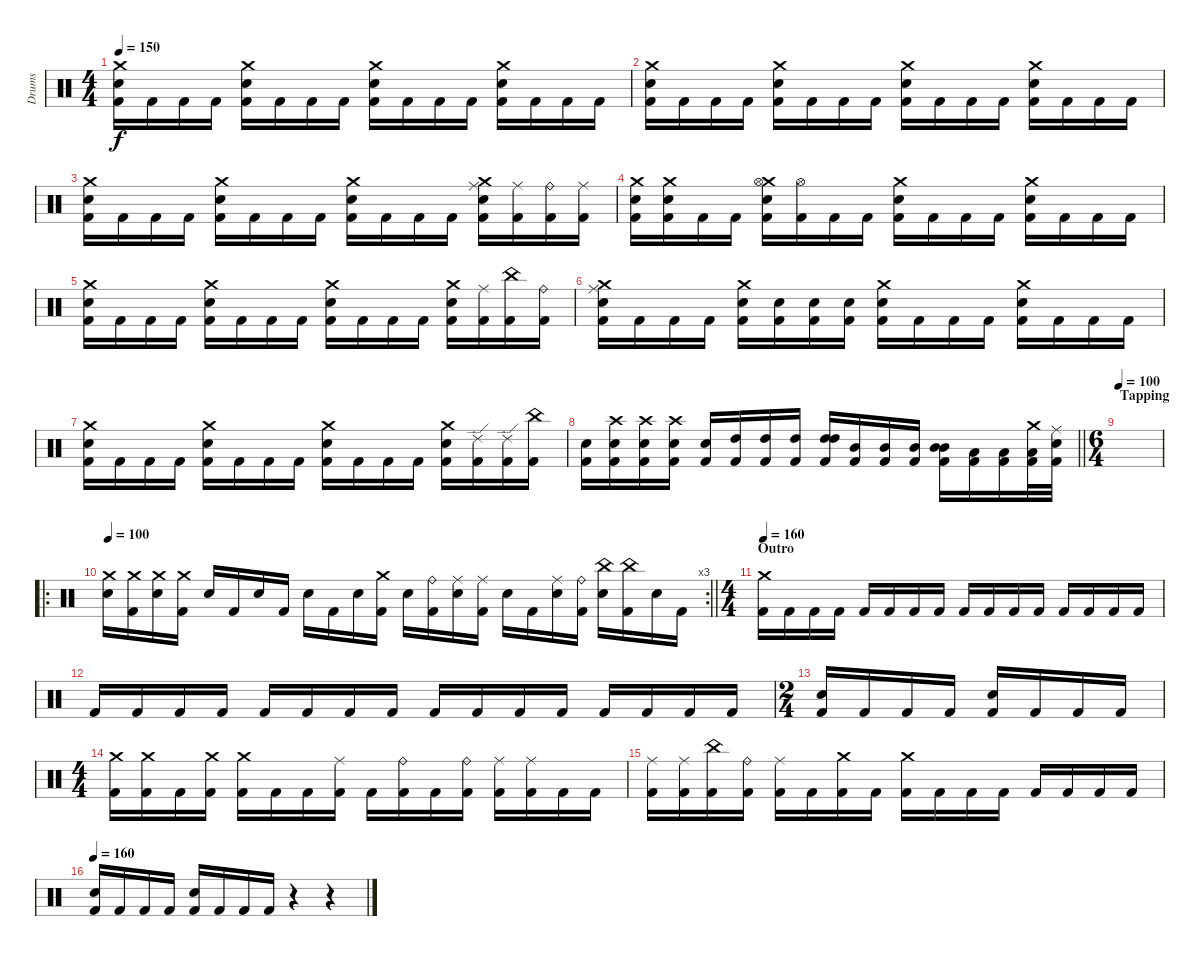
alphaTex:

\track ("Drums" "Drums") {instrument percussion}
\staff {score}
\articulation defaults
\ts (4 4)
\tempo 150
\clef neutral
\ks c
("Crash medium (hit)" "Electric Snare (hit)" "Kick (hit) 2").16{dy f} "Kick (hit) 2".16 "Kick (hit) 2".16 "Kick (hit) 2".16 ("Crash medium (hit)" "Electric Snare (hit)" "Kick (hit) 2").16 "Kick (hit) 2".16 "Kick (hit) 2".16 "Kick (hit) 2".16 ("Crash medium (hit)" "Electric Snare (hit)" "Kick (hit) 2").16 "Kick (hit) 2".16 "Kick (hit) 2".16 "Kick (hit) 2".16 ("Crash medium (hit)" "Electric Snare (hit)" "Kick (hit) 2").16 "Kick (hit) 2".16 "Kick (hit) 2".16 "Kick (hit) 2".16 |
("Crash medium (hit)" "Electric Snare (hit)" "Kick (hit) 2").16 "Kick (hit) 2".16 "Kick (hit) 2".16 "Kick (hit) 2".16 ("Crash medium (hit)" "Electric Snare (hit)" "Kick (hit) 2").16 "Kick (hit) 2".16 "Kick (hit) 2".16 "Kick (hit) 2".16 ("Crash medium (hit)" "Electric Snare (hit)" "Kick (hit) 2").16 "Kick (hit) 2".16 "Kick (hit) 2".16 "Kick (hit) 2".16 ("Crash medium (hit)" "Electric Snare (hit)" "Kick (hit) 2").16 "Kick (hit) 2".16 "Kick (hit) 2".16 "Kick (hit) 2".16 |
("Crash medium (hit)" "Electric Snare (hit)" "Kick (hit) 2").16 "Kick (hit) 2".16 "Kick (hit) 2".16 "Kick (hit) 2".16 ("Crash medium (hit)" "Electric Snare (hit)" "Kick (hit) 2").16 "Kick (hit) 2".16 "Kick (hit) 2".16 "Kick (hit) 2".16 ("Crash medium (hit)" "Electric Snare (hit)" "Kick (hit) 2").16 "Kick (hit) 2".16 "Kick (hit) 2".16 "Kick (hit) 2".16 ("Crash medium (hit)" "Ride (middle)" "Electric Snare (hit)" "Kick (hit) 2").16 ("Ride (middle)" "Kick (hit) 2").16 ("Ride (bell)" "Kick (hit) 2").16 ("Ride (middle)" "Kick (hit) 2").16 |
("Crash medium (hit)" "Electric Snare (hit)" "Kick (hit) 2").16 ("Crash medium (hit)" "Electric Snare (hit)" "Kick (hit) 2").16 "Kick (hit) 2".16 "Kick (hit) 2".16 ("Crash medium (hit)" "Hi-Hat (open)" "Electric Snare (hit)" "Kick (hit) 2").16 ("Hi-Hat (open)" "Kick (hit) 2").16 "Kick (hit) 2".16 "Kick (hit) 2".16 ("Crash medium (hit)" "Electric Snare (hit)" "Kick (hit) 2").16 "Kick (hit) 2".16 "Kick (hit) 2".16 "Kick (hit) 2".16 ("Crash medium (hit)" "Electric Snare (hit)" "Kick (hit) 2").16 "Kick (hit) 2".16 "Kick (hit) 2".16 "Kick (hit) 2".16 |
("Crash medium (hit)" "Electric Snare (hit)" "Kick (hit) 2").16 "Kick (hit) 2".16 "Kick (hit) 2".16 "Kick (hit) 2".16 ("Crash medium (hit)" "Electric Snare (hit)" "Kick (hit) 2").16 "Kick (hit) 2".16 "Kick (hit) 2".16 "Kick (hit) 2".16 ("Crash medium (hit)" "Electric Snare (hit)" "Kick (hit) 2").16 "Kick (hit) 2".16 "Kick (hit) 2".16 "Kick (hit) 2".16 ("Crash medium (hit)" "Electric Snare (hit)" "Kick (hit) 2").16 ("Ride (middle)" "Kick (hit) 2").16 ("China (hit)" "Kick (hit) 2").16 ("Ride (bell)" "Kick (hit) 2").16 |
("Crash medium (hit)" "Ride (middle)" "Electric Snare (hit)" "Kick (hit) 2").16 "Kick (hit) 2".16 "Kick (hit) 2".16 "Kick (hit) 2".16 ("Crash medium (hit)" "Electric Snare (hit)" "Kick (hit) 2").16 ("Electric Snare (hit)" "Kick (hit) 2").16 ("Electric Snare (hit)" "Kick (hit) 2").16 ("Electric Snare (hit)" "Kick (hit) 2").16 ("Crash medium (hit)" "Electric Snare (hit)" "Kick (hit) 2").16 "Kick (hit) 2".16 "Kick (hit) 2".16 "Kick (hit) 2".16 ("Crash medium (hit)" "Electric Snare (hit)" "Kick (hit) 2").16 "Kick (hit) 2".16 "Kick (hit) 2".16 "Kick (hit) 2".16 |
("Crash medium (hit)" "Electric Snare (hit)" "Kick (hit) 2").16 "Kick (hit) 2".16 "Kick (hit) 2".16 "Kick (hit) 2".16 ("Crash medium (hit)" "Electric Snare (hit)" "Kick (hit) 2").16 "Kick (hit) 2".16 "Kick (hit) 2".16 "Kick (hit) 2".16 ("Crash medium (hit)" "Electric Snare (hit)" "Kick (hit) 2").16 "Kick (hit) 2".16 "Kick (hit) 2".16 "Kick (hit) 2".16 ("Crash medium (hit)" "Electric Snare (hit)" "Kick (hit) 2").16 ("Ride (edge) 2" "Kick (hit) 2").16 ("Ride (edge) 2" "Kick (hit) 2").16 ("China (hit)" "Kick (hit) 2").16 |
\barLineRight lightlight
("Electric Snare (hit)" "Kick (hit) 2").16 ("Electric Snare (hit)" "Crash high (hit)" "Kick (hit) 2").16 ("Electric Snare (hit)" "Crash high (hit)" "Kick (hit) 2").16 ("Crash high (hit)" "Electric Snare (hit)" "Kick (hit) 2").16 ("Electric Snare (hit)" "Kick (hit) 2").16 ("High Tom (hit)" "Kick (hit) 2").16 ("High Tom (hit)" "Kick (hit) 2").16 ("High Tom (hit)" "Kick (hit) 2").16 ("High Tom (hit)" "High Tom (hit)" "Kick (hit) 2").16 ("Mid Tom (hit)" "Kick (hit) 2").16 ("Mid Tom (hit)" "Kick (hit) 2").16 ("Mid Tom (hit)" "Kick (hit) 2").16 ("Mid Tom (hit)" "Mid Tom (hit)" "Kick (hit) 2").16 ("Low Tom (hit)" "Kick (hit) 2").16 ("Low Tom (hit)" "Kick (hit) 2").16 ("Crash medium (hit)" "Low Tom (hit)" "Kick (hit) 2").32 ("Ride (middle)" "Electric Snare (hit)" "Kick (hit) 2").32 |
\ts (6 4)
\section ("" "Tapping")
\tempo 100
|
\ro
\rc 3
\tempo 100
\barLineRight lightlight
("Electric Snare (hit)" "Crash medium (hit)").16 ("Kick (hit) 2" "Crash medium (hit)").16 ("Electric Snare (hit)" "Crash medium (hit)").16 ("Kick (hit) 2" "Crash medium (hit)").16 "Electric Snare (hit)".16 "Kick (hit) 2".16 "Electric Snare (hit)".16 "Kick (hit) 2".16 "Electric Snare (hit)".16 "Kick (hit) 2".16 "Electric Snare (hit)".16 ("Kick (hit) 2" "Crash medium (hit)").16 "Electric Snare (hit)".16 ("Kick (hit) 2" "Ride (bell)").16 ("Electric Snare (hit)" "Ride (middle)").16 ("Kick (hit) 2" "Ride (middle)").16 "Electric Snare (hit)".16 "Kick (hit) 2".16 ("Electric Snare (hit)" "Ride (middle)").16 ("Kick (hit) 2" "Ride (bell)").16 ("Electric Snare (hit)" "China (hit)").16 ("Kick (hit) 2" "China (hit)").16 "Electric Snare (hit)".16 "Kick (hit) 2".16 |
\ts (4 4)
\section ("" "Outro")
\tempo 160
("Kick (hit) 2" "Crash medium (hit)").16 "Kick (hit) 2".16 "Kick (hit) 2".16 "Kick (hit) 2".16 "Kick (hit) 2".16 "Kick (hit) 2".16 "Kick (hit) 2".16 "Kick (hit) 2".16 "Kick (hit) 2".16 "Kick (hit) 2".16 "Kick (hit) 2".16 "Kick (hit) 2".16 "Kick (hit) 2".16 "Kick (hit) 2".16 "Kick (hit) 2".16 "Kick (hit) 2".16 |
"Kick (hit) 2".16 "Kick (hit) 2".16 "Kick (hit) 2".16 "Kick (hit) 2".16 "Kick (hit) 2".16 "Kick (hit) 2".16 "Kick (hit) 2".16 "Kick (hit) 2".16 "Kick (hit) 2".16 "Kick (hit) 2".16 "Kick (hit) 2".16 "Kick (hit) 2".16 "Kick (hit) 2".16 "Kick (hit) 2".16 "Kick (hit) 2".16 "Kick (hit) 2".16 |
\ts (2 4)
("Kick (hit) 2" "Electric Snare (hit)").16 "Kick (hit) 2".16 "Kick (hit) 2".16 "Kick (hit) 2".16 ("Kick (hit) 2" "Electric Snare (hit)").16 "Kick (hit) 2".16 "Kick (hit) 2".16 "Kick (hit) 2".16 |
\ts (4 4)
("Kick (hit) 2" "Crash medium (hit)").16 ("Kick (hit) 2" "Crash medium (hit)").16 "Kick (hit) 2".16 ("Kick (hit) 2" "Crash medium (hit)").16 ("Kick (hit) 2" "Crash medium (hit)").16 "Kick (hit) 2".16 "Kick (hit) 2".16 ("Kick (hit) 2" "Ride (middle)").16 "Kick (hit) 2".16 ("Kick (hit) 2" "Ride (bell)").16 "Kick (hit) 2".16 ("Kick (hit) 2" "Ride (bell)").16 ("Kick (hit) 2" "Ride (middle)").16 ("Kick (hit) 2" "Ride (middle)").16 "Kick (hit) 2".16 "Kick (hit) 2".16 |
("Kick (hit) 2" "Ride (middle)").16 ("Kick (hit) 2" "Ride (middle)").16 ("Kick (hit) 2" "China (hit)").16 ("Kick (hit) 2" "Ride (bell)").16 ("Kick (hit) 2" "Ride (middle)").16 "Kick (hit) 2".16 ("Kick (hit) 2" "Crash medium (hit)").16 "Kick (hit) 2".16 ("Kick (hit) 2" "Crash medium (hit)").16 "Kick (hit) 2".16 "Kick (hit) 2".16 "Kick (hit) 2".16 "Kick (hit) 2".16 "Kick (hit) 2".16 "Kick (hit) 2".16 "Kick (hit) 2".16 |
\tempo 160
("Kick (hit) 2" "Electric Snare (hit)").16 "Kick (hit) 2".16 "Kick (hit) 2".16 "Kick (hit) 2".16 ("Kick (hit) 2" "Electric Snare (hit)").16 "Kick (hit) 2".16 "Kick (hit) 2".16 "Kick (hit) 2".16 r.4 r.4
